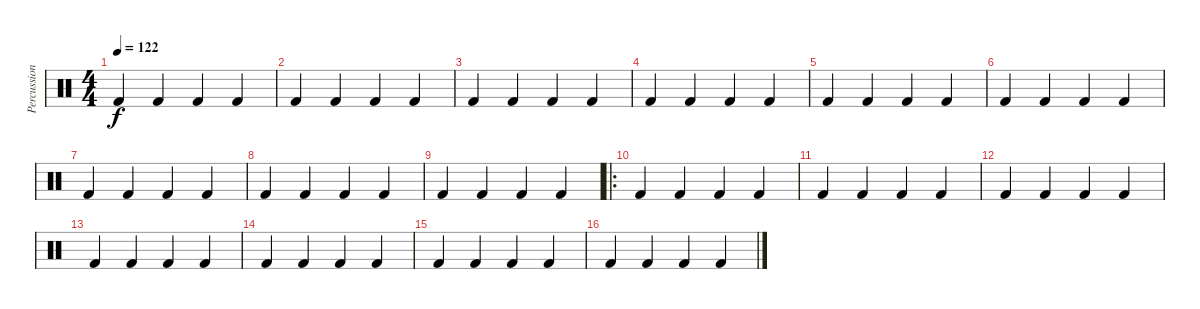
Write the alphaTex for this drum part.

\track ("Percussion" "Percussion") {instrument percussion}
\staff {score}
\articulation defaults
\ts (4 4)
\tempo 122
\clef neutral
\ks c "Kick (hit) 2".4{dy f} "Kick (hit) 2".4 "Kick (hit) 2".4 "Kick (hit) 2".4
|
"Kick (hit) 2".4 "Kick (hit) 2".4 "Kick (hit) 2".4 "Kick (hit) 2".4 |
"Kick (hit) 2".4 "Kick (hit) 2".4 "Kick (hit) 2".4 "Kick (hit) 2".4 |
"Kick (hit) 2".4 "Kick (hit) 2".4 "Kick (hit) 2".4 "Kick (hit) 2".4 |
"Kick (hit) 2".4 "Kick (hit) 2".4 "Kick (hit) 2".4 "Kick (hit) 2".4 |
"Kick (hit) 2".4 "Kick (hit) 2".4 "Kick (hit) 2".4 "Kick (hit) 2".4 |
"Kick (hit) 2".4 "Kick (hit) 2".4 "Kick (hit) 2".4 "Kick (hit) 2".4 |
"Kick (hit) 2".4 "Kick (hit) 2".4 "Kick (hit) 2".4 "Kick (hit) 2".4 |
"Kick (hit) 2".4 "Kick (hit) 2".4 "Kick (hit) 2".4 "Kick (hit) 2".4 |
\ro "Kick (hit) 2".4 "Kick (hit) 2".4 "Kick (hit) 2".4 "Kick (hit) 2".4
|
"Kick (hit) 2".4 "Kick (hit) 2".4 "Kick (hit) 2".4 "Kick (hit) 2".4 |
"Kick (hit) 2".4 "Kick (hit) 2".4 "Kick (hit) 2".4 "Kick (hit) 2".4 |
"Kick (hit) 2".4 "Kick (hit) 2".4 "Kick (hit) 2".4 "Kick (hit) 2".4 |
"Kick (hit) 2".4 "Kick (hit) 2".4 "Kick (hit) 2".4 "Kick (hit) 2".4 |
"Kick (hit) 2".4 "Kick (hit) 2".4 "Kick (hit) 2".4 "Kick (hit) 2".4 |
"Kick (hit) 2".4 "Kick (hit) 2".4 "Kick (hit) 2".4 "Kick (hit) 2".4
